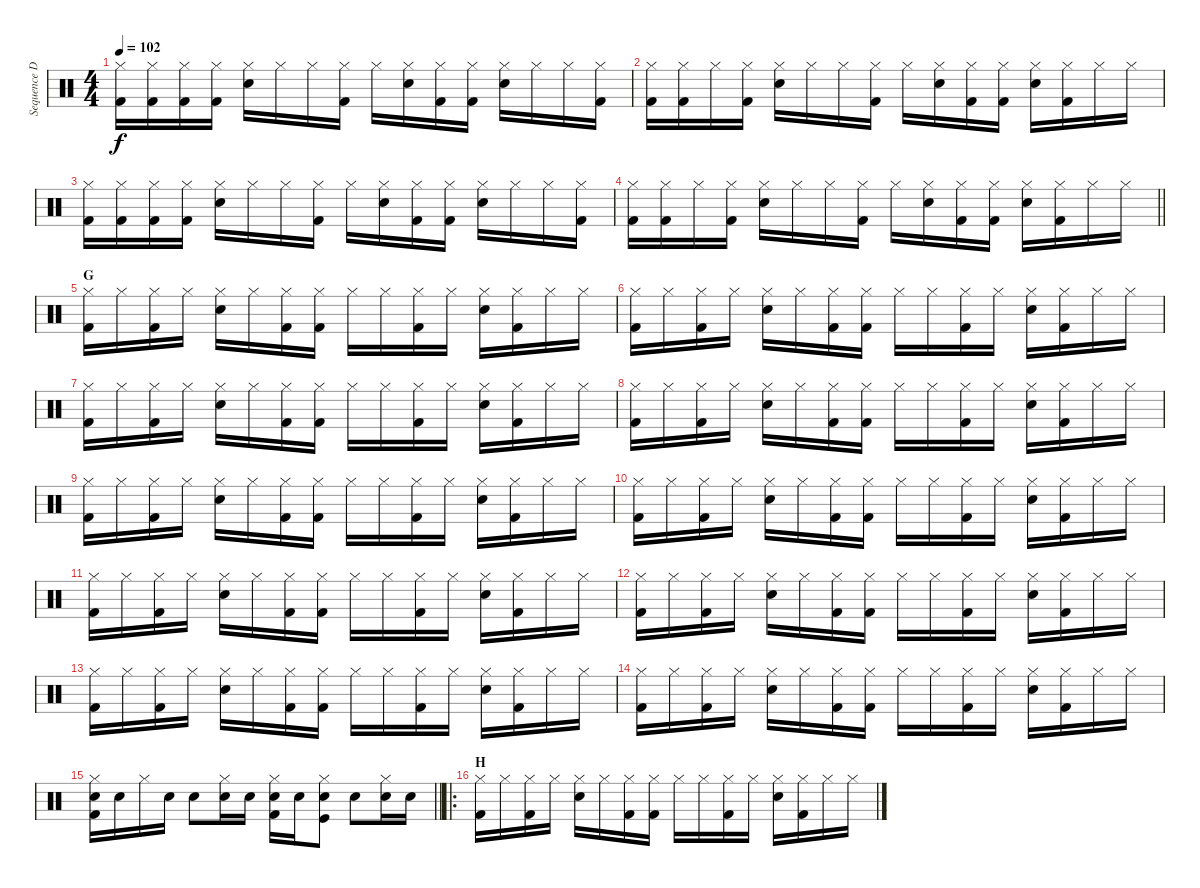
\track ("Sequence Drums" "Sequence D") {instrument percussion}
\staff {score}
\articulation defaults
\ts (4 4)
\tempo 102
\clef neutral
\ks c
("Hi-Hat (closed)" "Kick (hit) 2").16{dy f} ("Hi-Hat (closed)" "Kick (hit) 2").16 ("Hi-Hat (closed)" "Kick (hit) 2").16 ("Hi-Hat (closed)" "Kick (hit) 2").16 ("Hi-Hat (closed)" "Electric Snare (hit)").16 "Hi-Hat (closed)".16 "Hi-Hat (closed)".16 ("Hi-Hat (closed)" "Kick (hit) 2").16 "Hi-Hat (closed)".16 ("Hi-Hat (closed)" "Electric Snare (hit)").16 ("Hi-Hat (closed)" "Kick (hit) 2").16 ("Hi-Hat (closed)" "Kick (hit) 2").16 ("Hi-Hat (closed)" "Electric Snare (hit)").16 "Hi-Hat (closed)".16 "Hi-Hat (closed)".16 ("Hi-Hat (closed)" "Kick (hit) 2").16 |
("Hi-Hat (closed)" "Kick (hit) 2").16 ("Hi-Hat (closed)" "Kick (hit) 2").16 "Hi-Hat (closed)".16 ("Hi-Hat (closed)" "Kick (hit) 2").16 ("Hi-Hat (closed)" "Electric Snare (hit)").16 "Hi-Hat (closed)".16 "Hi-Hat (closed)".16 ("Hi-Hat (closed)" "Kick (hit) 2").16 "Hi-Hat (closed)".16 ("Hi-Hat (closed)" "Electric Snare (hit)").16 ("Hi-Hat (closed)" "Kick (hit) 2").16 ("Hi-Hat (closed)" "Kick (hit) 2").16 ("Hi-Hat (closed)" "Electric Snare (hit)").16 ("Hi-Hat (closed)" "Kick (hit) 2").16 "Hi-Hat (closed)".16 "Hi-Hat (closed)".16 |
("Hi-Hat (closed)" "Kick (hit) 2").16 ("Hi-Hat (closed)" "Kick (hit) 2").16 ("Hi-Hat (closed)" "Kick (hit) 2").16 ("Hi-Hat (closed)" "Kick (hit) 2").16 ("Hi-Hat (closed)" "Electric Snare (hit)").16 "Hi-Hat (closed)".16 "Hi-Hat (closed)".16 ("Hi-Hat (closed)" "Kick (hit) 2").16 "Hi-Hat (closed)".16 ("Hi-Hat (closed)" "Electric Snare (hit)").16 ("Hi-Hat (closed)" "Kick (hit) 2").16 ("Hi-Hat (closed)" "Kick (hit) 2").16 ("Hi-Hat (closed)" "Electric Snare (hit)").16 "Hi-Hat (closed)".16 "Hi-Hat (closed)".16 ("Hi-Hat (closed)" "Kick (hit) 2").16 |
\barLineRight lightlight
("Hi-Hat (closed)" "Kick (hit) 2").16 ("Hi-Hat (closed)" "Kick (hit) 2").16 "Hi-Hat (closed)".16 ("Hi-Hat (closed)" "Kick (hit) 2").16 ("Hi-Hat (closed)" "Electric Snare (hit)").16 "Hi-Hat (closed)".16 "Hi-Hat (closed)".16 ("Hi-Hat (closed)" "Kick (hit) 2").16 "Hi-Hat (closed)".16 ("Hi-Hat (closed)" "Electric Snare (hit)").16 ("Hi-Hat (closed)" "Kick (hit) 2").16 ("Hi-Hat (closed)" "Kick (hit) 2").16 ("Hi-Hat (closed)" "Electric Snare (hit)").16 ("Hi-Hat (closed)" "Kick (hit) 2").16 "Hi-Hat (closed)".16 "Hi-Hat (closed)".16 |
\section ("" "G")
("Hi-Hat (closed)" "Kick (hit) 2").16 "Hi-Hat (closed)".16 ("Hi-Hat (closed)" "Kick (hit) 2").16 "Hi-Hat (closed)".16 ("Hi-Hat (closed)" "Electric Snare (hit)").16 "Hi-Hat (closed)".16 ("Hi-Hat (closed)" "Kick (hit) 2").16 ("Hi-Hat (closed)" "Kick (hit) 2").16 "Hi-Hat (closed)".16 "Hi-Hat (closed)".16 ("Hi-Hat (closed)" "Kick (hit) 2").16 "Hi-Hat (closed)".16 ("Hi-Hat (closed)" "Electric Snare (hit)").16 ("Hi-Hat (closed)" "Kick (hit) 2").16 "Hi-Hat (closed)".16 "Hi-Hat (closed)".16 |
("Hi-Hat (closed)" "Kick (hit) 2").16 "Hi-Hat (closed)".16 ("Hi-Hat (closed)" "Kick (hit) 2").16 "Hi-Hat (closed)".16 ("Hi-Hat (closed)" "Electric Snare (hit)").16 "Hi-Hat (closed)".16 ("Hi-Hat (closed)" "Kick (hit) 2").16 ("Hi-Hat (closed)" "Kick (hit) 2").16 "Hi-Hat (closed)".16 "Hi-Hat (closed)".16 ("Hi-Hat (closed)" "Kick (hit) 2").16 "Hi-Hat (closed)".16 ("Hi-Hat (closed)" "Electric Snare (hit)").16 ("Hi-Hat (closed)" "Kick (hit) 2").16 "Hi-Hat (closed)".16 "Hi-Hat (closed)".16 |
("Hi-Hat (closed)" "Kick (hit) 2").16 "Hi-Hat (closed)".16 ("Hi-Hat (closed)" "Kick (hit) 2").16 "Hi-Hat (closed)".16 ("Hi-Hat (closed)" "Electric Snare (hit)").16 "Hi-Hat (closed)".16 ("Hi-Hat (closed)" "Kick (hit) 2").16 ("Hi-Hat (closed)" "Kick (hit) 2").16 "Hi-Hat (closed)".16 "Hi-Hat (closed)".16 ("Hi-Hat (closed)" "Kick (hit) 2").16 "Hi-Hat (closed)".16 ("Hi-Hat (closed)" "Electric Snare (hit)").16 ("Hi-Hat (closed)" "Kick (hit) 2").16 "Hi-Hat (closed)".16 "Hi-Hat (closed)".16 |
("Hi-Hat (closed)" "Kick (hit) 2").16 "Hi-Hat (closed)".16 ("Hi-Hat (closed)" "Kick (hit) 2").16 "Hi-Hat (closed)".16 ("Hi-Hat (closed)" "Electric Snare (hit)").16 "Hi-Hat (closed)".16 ("Hi-Hat (closed)" "Kick (hit) 2").16 ("Hi-Hat (closed)" "Kick (hit) 2").16 "Hi-Hat (closed)".16 "Hi-Hat (closed)".16 ("Hi-Hat (closed)" "Kick (hit) 2").16 "Hi-Hat (closed)".16 ("Hi-Hat (closed)" "Electric Snare (hit)").16 ("Hi-Hat (closed)" "Kick (hit) 2").16 "Hi-Hat (closed)".16 "Hi-Hat (closed)".16 |
("Hi-Hat (closed)" "Kick (hit) 2").16 "Hi-Hat (closed)".16 ("Hi-Hat (closed)" "Kick (hit) 2").16 "Hi-Hat (closed)".16 ("Hi-Hat (closed)" "Electric Snare (hit)").16 "Hi-Hat (closed)".16 ("Hi-Hat (closed)" "Kick (hit) 2").16 ("Hi-Hat (closed)" "Kick (hit) 2").16 "Hi-Hat (closed)".16 "Hi-Hat (closed)".16 ("Hi-Hat (closed)" "Kick (hit) 2").16 "Hi-Hat (closed)".16 ("Hi-Hat (closed)" "Electric Snare (hit)").16 ("Hi-Hat (closed)" "Kick (hit) 2").16 "Hi-Hat (closed)".16 "Hi-Hat (closed)".16 |
("Hi-Hat (closed)" "Kick (hit) 2").16 "Hi-Hat (closed)".16 ("Hi-Hat (closed)" "Kick (hit) 2").16 "Hi-Hat (closed)".16 ("Hi-Hat (closed)" "Electric Snare (hit)").16 "Hi-Hat (closed)".16 ("Hi-Hat (closed)" "Kick (hit) 2").16 ("Hi-Hat (closed)" "Kick (hit) 2").16 "Hi-Hat (closed)".16 "Hi-Hat (closed)".16 ("Hi-Hat (closed)" "Kick (hit) 2").16 "Hi-Hat (closed)".16 ("Hi-Hat (closed)" "Electric Snare (hit)").16 ("Hi-Hat (closed)" "Kick (hit) 2").16 "Hi-Hat (closed)".16 "Hi-Hat (closed)".16 |
("Hi-Hat (closed)" "Kick (hit) 2").16 "Hi-Hat (closed)".16 ("Hi-Hat (closed)" "Kick (hit) 2").16 "Hi-Hat (closed)".16 ("Hi-Hat (closed)" "Electric Snare (hit)").16 "Hi-Hat (closed)".16 ("Hi-Hat (closed)" "Kick (hit) 2").16 ("Hi-Hat (closed)" "Kick (hit) 2").16 "Hi-Hat (closed)".16 "Hi-Hat (closed)".16 ("Hi-Hat (closed)" "Kick (hit) 2").16 "Hi-Hat (closed)".16 ("Hi-Hat (closed)" "Electric Snare (hit)").16 ("Hi-Hat (closed)" "Kick (hit) 2").16 "Hi-Hat (closed)".16 "Hi-Hat (closed)".16 |
("Hi-Hat (closed)" "Kick (hit) 2").16 "Hi-Hat (closed)".16 ("Hi-Hat (closed)" "Kick (hit) 2").16 "Hi-Hat (closed)".16 ("Hi-Hat (closed)" "Electric Snare (hit)").16 "Hi-Hat (closed)".16 ("Hi-Hat (closed)" "Kick (hit) 2").16 ("Hi-Hat (closed)" "Kick (hit) 2").16 "Hi-Hat (closed)".16 "Hi-Hat (closed)".16 ("Hi-Hat (closed)" "Kick (hit) 2").16 "Hi-Hat (closed)".16 ("Hi-Hat (closed)" "Electric Snare (hit)").16 ("Hi-Hat (closed)" "Kick (hit) 2").16 "Hi-Hat (closed)".16 "Hi-Hat (closed)".16 |
("Hi-Hat (closed)" "Kick (hit) 2").16 "Hi-Hat (closed)".16 ("Hi-Hat (closed)" "Kick (hit) 2").16 "Hi-Hat (closed)".16 ("Hi-Hat (closed)" "Electric Snare (hit)").16 "Hi-Hat (closed)".16 ("Hi-Hat (closed)" "Kick (hit) 2").16 ("Hi-Hat (closed)" "Kick (hit) 2").16 "Hi-Hat (closed)".16 "Hi-Hat (closed)".16 ("Hi-Hat (closed)" "Kick (hit) 2").16 "Hi-Hat (closed)".16 ("Hi-Hat (closed)" "Electric Snare (hit)").16 ("Hi-Hat (closed)" "Kick (hit) 2").16 "Hi-Hat (closed)".16 "Hi-Hat (closed)".16 |
("Hi-Hat (closed)" "Kick (hit) 2").16 "Hi-Hat (closed)".16 ("Hi-Hat (closed)" "Kick (hit) 2").16 "Hi-Hat (closed)".16 ("Hi-Hat (closed)" "Electric Snare (hit)").16 "Hi-Hat (closed)".16 ("Hi-Hat (closed)" "Kick (hit) 2").16 ("Hi-Hat (closed)" "Kick (hit) 2").16 "Hi-Hat (closed)".16 "Hi-Hat (closed)".16 ("Hi-Hat (closed)" "Kick (hit) 2").16 "Hi-Hat (closed)".16 ("Hi-Hat (closed)" "Electric Snare (hit)").16 ("Hi-Hat (closed)" "Kick (hit) 2").16 "Hi-Hat (closed)".16 "Hi-Hat (closed)".16 |
\barLineRight lightlight
("Hi-Hat (closed)" "Electric Snare (hit)" "Kick (hit) 2").16 "Electric Snare (hit)".16 "Hi-Hat (closed)".16 "Electric Snare (hit)".16 "Electric Snare (hit)".8 ("Hi-Hat (closed)" "Electric Snare (hit)").16 "Electric Snare (hit)".16 ("Hi-Hat (closed)" "Electric Snare (hit)" "Kick (hit) 2").16 "Electric Snare (hit)".16 ("Hi-Hat (closed)" "Electric Snare (hit)" "Kick (hit)").8 "Electric Snare (hit)".8 ("Hi-Hat (closed)" "Electric Snare (hit)").16 "Electric Snare (hit)".16 |
\ro
\section ("" "H")
("Hi-Hat (closed)" "Kick (hit) 2").16 "Hi-Hat (closed)".16 ("Hi-Hat (closed)" "Kick (hit) 2").16 "Hi-Hat (closed)".16 ("Hi-Hat (closed)" "Electric Snare (hit)").16 "Hi-Hat (closed)".16 ("Hi-Hat (closed)" "Kick (hit) 2").16 ("Hi-Hat (closed)" "Kick (hit) 2").16 "Hi-Hat (closed)".16 "Hi-Hat (closed)".16 ("Hi-Hat (closed)" "Kick (hit) 2").16 "Hi-Hat (closed)".16 ("Hi-Hat (closed)" "Electric Snare (hit)").16 ("Hi-Hat (closed)" "Kick (hit) 2").16 "Hi-Hat (closed)".16 "Hi-Hat (closed)".16
